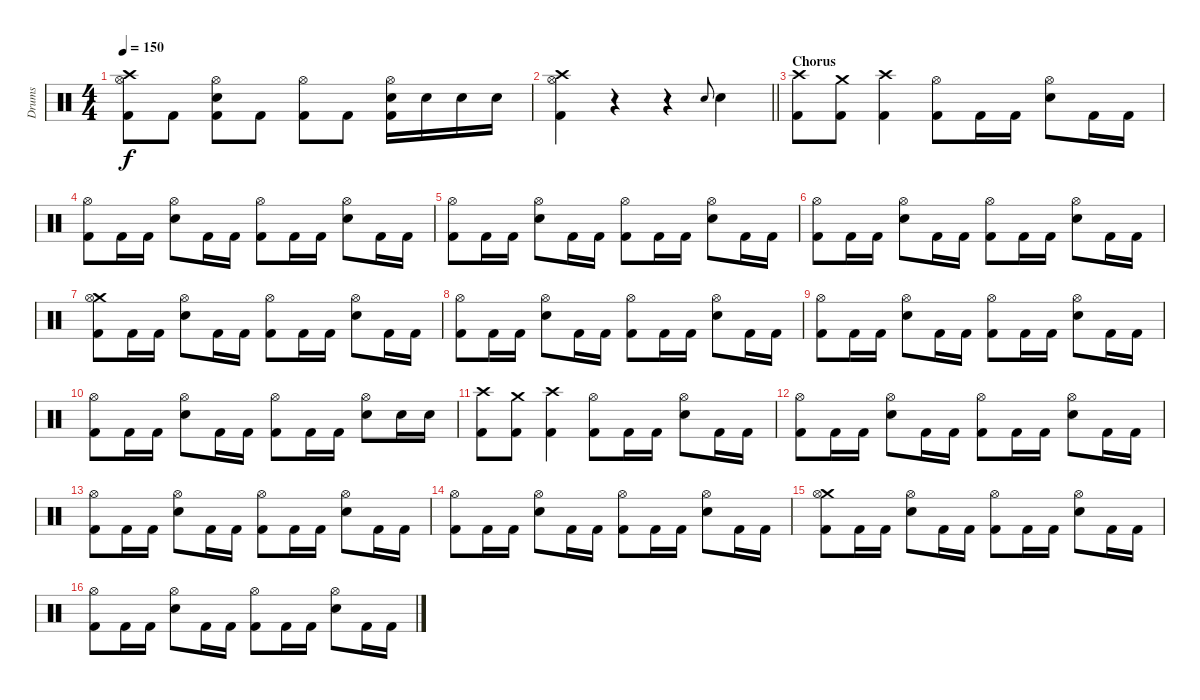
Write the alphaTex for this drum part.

\track ("Drums" "Drums") {instrument percussion}
\staff {score}
\articulation defaults
\ts (4 4)
\tempo 150
\clef neutral
\ks c
("Crash high (hit)" "Hi-Hat (open)" "Kick (hit) 2").8{dy f} "Kick (hit) 2".8 ("Hi-Hat (open)" "Snare (hit) 2" "Kick (hit) 2").8 "Kick (hit) 2".8 ("Hi-Hat (open)" "Kick (hit) 2").8 "Kick (hit) 2".8 ("Hi-Hat (open)" "Snare (hit) 2" "Kick (hit) 2").16 "Snare (hit) 2".16 "Snare (hit) 2".16 "Snare (hit) 2".16 |
\barLineRight lightlight
("Crash high (hit)" "Hi-Hat (open)" "Kick (hit) 2").4 r.4 r.4 "Snare (hit) 2".8{gr onbeat} "Snare (hit) 2".4 |
\section ("" "Chorus")
("Crash high (hit)" "Kick (hit) 2").8 ("Crash medium (hit)" "Kick (hit) 2").8 ("Crash high (hit)" "Kick (hit) 2").4 ("Hi-Hat (open)" "Kick (hit) 2").8 "Kick (hit) 2".16 "Kick (hit) 2".16 ("Hi-Hat (open)" "Snare (hit) 2").8 "Kick (hit) 2".16 "Kick (hit) 2".16 |
("Hi-Hat (open)" "Kick (hit) 2").8 "Kick (hit) 2".16 "Kick (hit) 2".16 ("Hi-Hat (open)" "Snare (hit) 2").8 "Kick (hit) 2".16 "Kick (hit) 2".16 ("Hi-Hat (open)" "Kick (hit) 2").8 "Kick (hit) 2".16 "Kick (hit) 2".16 ("Hi-Hat (open)" "Snare (hit) 2").8 "Kick (hit) 2".16 "Kick (hit) 2".16 |
("Hi-Hat (open)" "Kick (hit) 2").8 "Kick (hit) 2".16 "Kick (hit) 2".16 ("Hi-Hat (open)" "Snare (hit) 2").8 "Kick (hit) 2".16 "Kick (hit) 2".16 ("Hi-Hat (open)" "Kick (hit) 2").8 "Kick (hit) 2".16 "Kick (hit) 2".16 ("Hi-Hat (open)" "Snare (hit) 2").8 "Kick (hit) 2".16 "Kick (hit) 2".16 |
("Hi-Hat (open)" "Kick (hit) 2").8 "Kick (hit) 2".16 "Kick (hit) 2".16 ("Hi-Hat (open)" "Snare (hit) 2").8 "Kick (hit) 2".16 "Kick (hit) 2".16 ("Hi-Hat (open)" "Kick (hit) 2").8 "Kick (hit) 2".16 "Kick (hit) 2".16 ("Hi-Hat (open)" "Snare (hit) 2").8 "Kick (hit) 2".16 "Kick (hit) 2".16 |
("Crash medium (hit)" "Hi-Hat (open)" "Kick (hit) 2").8 "Kick (hit) 2".16 "Kick (hit) 2".16 ("Hi-Hat (open)" "Snare (hit) 2").8 "Kick (hit) 2".16 "Kick (hit) 2".16 ("Hi-Hat (open)" "Kick (hit) 2").8 "Kick (hit) 2".16 "Kick (hit) 2".16 ("Hi-Hat (open)" "Snare (hit) 2").8 "Kick (hit) 2".16 "Kick (hit) 2".16 |
("Hi-Hat (open)" "Kick (hit) 2").8 "Kick (hit) 2".16 "Kick (hit) 2".16 ("Hi-Hat (open)" "Snare (hit) 2").8 "Kick (hit) 2".16 "Kick (hit) 2".16 ("Hi-Hat (open)" "Kick (hit) 2").8 "Kick (hit) 2".16 "Kick (hit) 2".16 ("Hi-Hat (open)" "Snare (hit) 2").8 "Kick (hit) 2".16 "Kick (hit) 2".16 |
("Hi-Hat (open)" "Kick (hit) 2").8 "Kick (hit) 2".16 "Kick (hit) 2".16 ("Hi-Hat (open)" "Snare (hit) 2").8 "Kick (hit) 2".16 "Kick (hit) 2".16 ("Hi-Hat (open)" "Kick (hit) 2").8 "Kick (hit) 2".16 "Kick (hit) 2".16 ("Hi-Hat (open)" "Snare (hit) 2").8 "Kick (hit) 2".16 "Kick (hit) 2".16 |
("Hi-Hat (open)" "Kick (hit) 2").8 "Kick (hit) 2".16 "Kick (hit) 2".16 ("Hi-Hat (open)" "Snare (hit) 2").8 "Kick (hit) 2".16 "Kick (hit) 2".16 ("Hi-Hat (open)" "Kick (hit) 2").8 "Kick (hit) 2".16 "Kick (hit) 2".16 ("Hi-Hat (open)" "Snare (hit) 2").8 "Snare (hit) 2".16 "Snare (hit) 2".16 |
("Crash high (hit)" "Kick (hit) 2").8 ("Crash medium (hit)" "Kick (hit) 2").8 ("Crash high (hit)" "Kick (hit) 2").4 ("Hi-Hat (open)" "Kick (hit) 2").8 "Kick (hit) 2".16 "Kick (hit) 2".16 ("Hi-Hat (open)" "Snare (hit) 2").8 "Kick (hit) 2".16 "Kick (hit) 2".16 |
("Hi-Hat (open)" "Kick (hit) 2").8 "Kick (hit) 2".16 "Kick (hit) 2".16 ("Hi-Hat (open)" "Snare (hit) 2").8 "Kick (hit) 2".16 "Kick (hit) 2".16 ("Hi-Hat (open)" "Kick (hit) 2").8 "Kick (hit) 2".16 "Kick (hit) 2".16 ("Hi-Hat (open)" "Snare (hit) 2").8 "Kick (hit) 2".16 "Kick (hit) 2".16 |
("Hi-Hat (open)" "Kick (hit) 2").8 "Kick (hit) 2".16 "Kick (hit) 2".16 ("Hi-Hat (open)" "Snare (hit) 2").8 "Kick (hit) 2".16 "Kick (hit) 2".16 ("Hi-Hat (open)" "Kick (hit) 2").8 "Kick (hit) 2".16 "Kick (hit) 2".16 ("Hi-Hat (open)" "Snare (hit) 2").8 "Kick (hit) 2".16 "Kick (hit) 2".16 |
("Hi-Hat (open)" "Kick (hit) 2").8 "Kick (hit) 2".16 "Kick (hit) 2".16 ("Hi-Hat (open)" "Snare (hit) 2").8 "Kick (hit) 2".16 "Kick (hit) 2".16 ("Hi-Hat (open)" "Kick (hit) 2").8 "Kick (hit) 2".16 "Kick (hit) 2".16 ("Hi-Hat (open)" "Snare (hit) 2").8 "Kick (hit) 2".16 "Kick (hit) 2".16 |
("Crash medium (hit)" "Hi-Hat (open)" "Kick (hit) 2").8 "Kick (hit) 2".16 "Kick (hit) 2".16 ("Hi-Hat (open)" "Snare (hit) 2").8 "Kick (hit) 2".16 "Kick (hit) 2".16 ("Hi-Hat (open)" "Kick (hit) 2").8 "Kick (hit) 2".16 "Kick (hit) 2".16 ("Hi-Hat (open)" "Snare (hit) 2").8 "Kick (hit) 2".16 "Kick (hit) 2".16 |
("Hi-Hat (open)" "Kick (hit) 2").8 "Kick (hit) 2".16 "Kick (hit) 2".16 ("Hi-Hat (open)" "Snare (hit) 2").8 "Kick (hit) 2".16 "Kick (hit) 2".16 ("Hi-Hat (open)" "Kick (hit) 2").8 "Kick (hit) 2".16 "Kick (hit) 2".16 ("Hi-Hat (open)" "Snare (hit) 2").8 "Kick (hit) 2".16 "Kick (hit) 2".16
